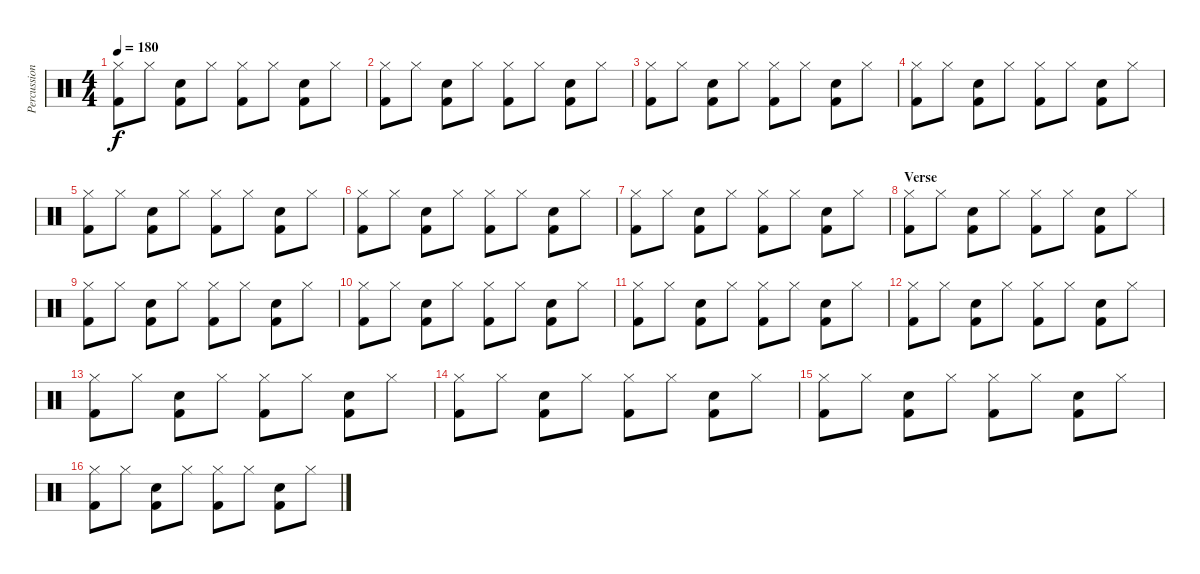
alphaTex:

\track ("Percussion" "Percussion") {instrument percussion}
\staff {score}
\articulation defaults
\ts (4 4)
\tempo 180
\clef neutral
\ks c
("Kick (hit) 2" "Hi-Hat (closed)").8{dy f} "Hi-Hat (closed)".8 ("Kick (hit) 2" "Snare (hit) 2").8 "Hi-Hat (closed)".8 ("Kick (hit) 2" "Hi-Hat (closed)").8 "Hi-Hat (closed)".8 ("Kick (hit) 2" "Electric Snare (hit)").8 "Hi-Hat (closed)".8 |
("Kick (hit) 2" "Hi-Hat (closed)").8 "Hi-Hat (closed)".8 ("Kick (hit) 2" "Snare (hit) 2").8 "Hi-Hat (closed)".8 ("Kick (hit) 2" "Hi-Hat (closed)").8 "Hi-Hat (closed)".8 ("Kick (hit) 2" "Electric Snare (hit)").8 "Hi-Hat (closed)".8 |
("Kick (hit) 2" "Hi-Hat (closed)").8 "Hi-Hat (closed)".8 ("Kick (hit) 2" "Snare (hit) 2").8 "Hi-Hat (closed)".8 ("Kick (hit) 2" "Hi-Hat (closed)").8 "Hi-Hat (closed)".8 ("Kick (hit) 2" "Electric Snare (hit)").8 "Hi-Hat (closed)".8 |
("Kick (hit) 2" "Hi-Hat (closed)").8 "Hi-Hat (closed)".8 ("Kick (hit) 2" "Snare (hit) 2").8 "Hi-Hat (closed)".8 ("Kick (hit) 2" "Hi-Hat (closed)").8 "Hi-Hat (closed)".8 ("Kick (hit) 2" "Electric Snare (hit)").8 "Hi-Hat (closed)".8 |
("Kick (hit) 2" "Hi-Hat (closed)").8 "Hi-Hat (closed)".8 ("Kick (hit) 2" "Snare (hit) 2").8 "Hi-Hat (closed)".8 ("Kick (hit) 2" "Hi-Hat (closed)").8 "Hi-Hat (closed)".8 ("Kick (hit) 2" "Electric Snare (hit)").8 "Hi-Hat (closed)".8 |
("Kick (hit) 2" "Hi-Hat (closed)").8 "Hi-Hat (closed)".8 ("Kick (hit) 2" "Snare (hit) 2").8 "Hi-Hat (closed)".8 ("Kick (hit) 2" "Hi-Hat (closed)").8 "Hi-Hat (closed)".8 ("Kick (hit) 2" "Electric Snare (hit)").8 "Hi-Hat (closed)".8 |
("Kick (hit) 2" "Hi-Hat (closed)").8 "Hi-Hat (closed)".8 ("Kick (hit) 2" "Snare (hit) 2").8 "Hi-Hat (closed)".8 ("Kick (hit) 2" "Hi-Hat (closed)").8 "Hi-Hat (closed)".8 ("Kick (hit) 2" "Electric Snare (hit)").8 "Hi-Hat (closed)".8 |
\section ("" "Verse")
("Kick (hit) 2" "Hi-Hat (closed)").8 "Hi-Hat (closed)".8 ("Kick (hit) 2" "Snare (hit) 2").8 "Hi-Hat (closed)".8 ("Kick (hit) 2" "Hi-Hat (closed)").8 "Hi-Hat (closed)".8 ("Kick (hit) 2" "Electric Snare (hit)").8 "Hi-Hat (closed)".8 |
("Kick (hit) 2" "Hi-Hat (closed)").8 "Hi-Hat (closed)".8 ("Kick (hit) 2" "Snare (hit) 2").8 "Hi-Hat (closed)".8 ("Kick (hit) 2" "Hi-Hat (closed)").8 "Hi-Hat (closed)".8 ("Kick (hit) 2" "Electric Snare (hit)").8 "Hi-Hat (closed)".8 |
("Kick (hit) 2" "Hi-Hat (closed)").8 "Hi-Hat (closed)".8 ("Kick (hit) 2" "Snare (hit) 2").8 "Hi-Hat (closed)".8 ("Kick (hit) 2" "Hi-Hat (closed)").8 "Hi-Hat (closed)".8 ("Kick (hit) 2" "Electric Snare (hit)").8 "Hi-Hat (closed)".8 |
("Kick (hit) 2" "Hi-Hat (closed)").8 "Hi-Hat (closed)".8 ("Kick (hit) 2" "Snare (hit) 2").8 "Hi-Hat (closed)".8 ("Kick (hit) 2" "Hi-Hat (closed)").8 "Hi-Hat (closed)".8 ("Kick (hit) 2" "Electric Snare (hit)").8 "Hi-Hat (closed)".8 |
("Kick (hit) 2" "Hi-Hat (closed)").8 "Hi-Hat (closed)".8 ("Kick (hit) 2" "Snare (hit) 2").8 "Hi-Hat (closed)".8 ("Kick (hit) 2" "Hi-Hat (closed)").8 "Hi-Hat (closed)".8 ("Kick (hit) 2" "Electric Snare (hit)").8 "Hi-Hat (closed)".8 |
("Kick (hit) 2" "Hi-Hat (closed)").8 "Hi-Hat (closed)".8 ("Kick (hit) 2" "Snare (hit) 2").8 "Hi-Hat (closed)".8 ("Kick (hit) 2" "Hi-Hat (closed)").8 "Hi-Hat (closed)".8 ("Kick (hit) 2" "Electric Snare (hit)").8 "Hi-Hat (closed)".8 |
("Kick (hit) 2" "Hi-Hat (closed)").8 "Hi-Hat (closed)".8 ("Kick (hit) 2" "Snare (hit) 2").8 "Hi-Hat (closed)".8 ("Kick (hit) 2" "Hi-Hat (closed)").8 "Hi-Hat (closed)".8 ("Kick (hit) 2" "Electric Snare (hit)").8 "Hi-Hat (closed)".8 |
("Kick (hit) 2" "Hi-Hat (closed)").8 "Hi-Hat (closed)".8 ("Kick (hit) 2" "Snare (hit) 2").8 "Hi-Hat (closed)".8 ("Kick (hit) 2" "Hi-Hat (closed)").8 "Hi-Hat (closed)".8 ("Kick (hit) 2" "Electric Snare (hit)").8 "Hi-Hat (closed)".8 |
("Kick (hit) 2" "Hi-Hat (closed)").8 "Hi-Hat (closed)".8 ("Kick (hit) 2" "Snare (hit) 2").8 "Hi-Hat (closed)".8 ("Kick (hit) 2" "Hi-Hat (closed)").8 "Hi-Hat (closed)".8 ("Kick (hit) 2" "Electric Snare (hit)").8 "Hi-Hat (closed)".8
